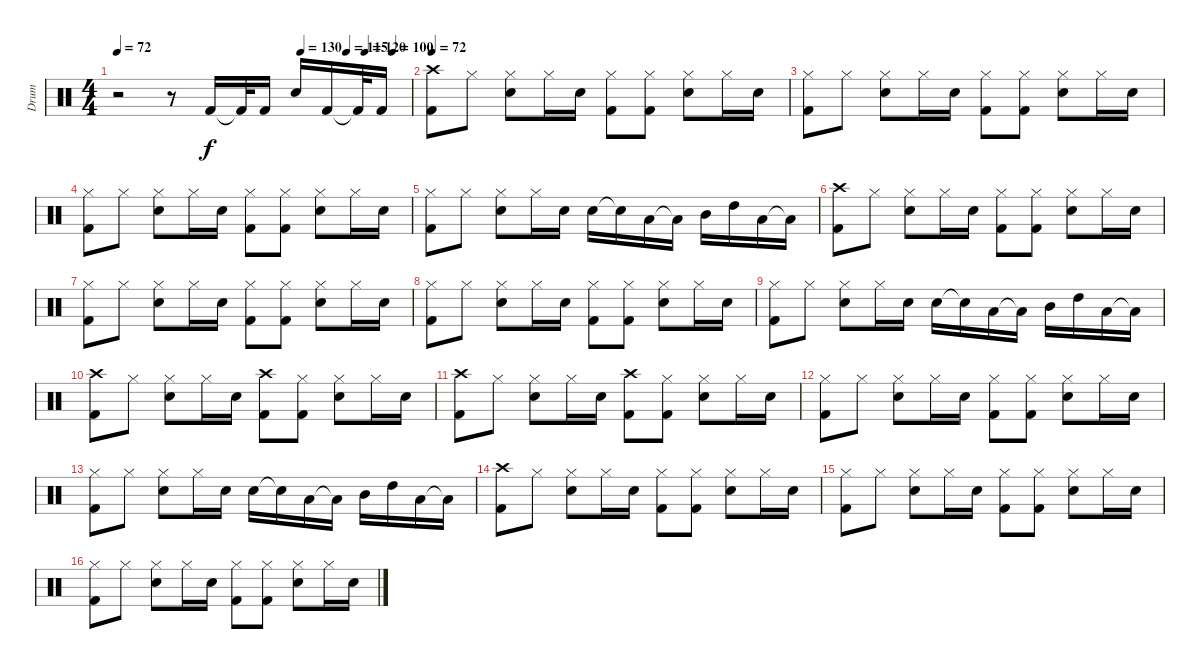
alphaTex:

\track ("Drum" "Drum") {instrument percussion}
\staff {score}
\articulation defaults
\ts (4 4)
\tempo 72
\tempo 150
\tempo (130 0.625)
\tempo (115 0.78125)
\tempo (120 0.84375)
\tempo (100 0.9375)
\tempo 72
\clef neutral
\ks c
r.2{dy f volume 16 balance 0} r.8 "Kick (hit) 2".16{volume 16} "Kick (hit) 2"{t}.32 "Kick (hit) 2".16 "Snare (hit) 2".16 "Kick (hit) 2".16 "Kick (hit) 2"{t}.32 "Kick (hit) 2".16 |
\tempo 72
("Kick (hit) 2" "Crash high (hit)").8{volume 12 balance 6} "Hi-Hat (closed)".8 ("Hi-Hat (closed)" "Electric Snare (hit)").8 "Hi-Hat (closed)".16 "Electric Snare (hit)".16 ("Hi-Hat (closed)" "Kick (hit) 2").8 ("Hi-Hat (closed)" "Kick (hit) 2").8 ("Electric Snare (hit)" "Hi-Hat (closed)").8 "Hi-Hat (closed)".16 "Electric Snare (hit)".16 |
("Hi-Hat (closed)" "Kick (hit) 2").8 "Hi-Hat (closed)".8 ("Hi-Hat (closed)" "Electric Snare (hit)").8 "Hi-Hat (closed)".16 "Electric Snare (hit)".16 ("Hi-Hat (closed)" "Kick (hit) 2").8 ("Hi-Hat (closed)" "Kick (hit) 2").8 ("Electric Snare (hit)" "Hi-Hat (closed)").8 "Hi-Hat (closed)".16 "Electric Snare (hit)".16 |
("Hi-Hat (closed)" "Kick (hit) 2").8 "Hi-Hat (closed)".8 ("Hi-Hat (closed)" "Electric Snare (hit)").8 "Hi-Hat (closed)".16 "Electric Snare (hit)".16 ("Hi-Hat (closed)" "Kick (hit) 2").8 ("Hi-Hat (closed)" "Kick (hit) 2").8 ("Electric Snare (hit)" "Hi-Hat (closed)").8 "Hi-Hat (closed)".16 "Electric Snare (hit)".16 |
("Hi-Hat (closed)" "Kick (hit) 2").8 "Hi-Hat (closed)".8 ("Hi-Hat (closed)" "Electric Snare (hit)").8 "Hi-Hat (closed)".16 "Electric Snare (hit)".16 "Electric Snare (hit)".16 "Electric Snare (hit)"{t}.16 "Low Tom (hit)".16 "Low Tom (hit)"{t}.16 "Mid Tom (hit)".16 "High Tom (hit)".16 "Low Tom (hit)".16 "Low Tom (hit)"{t}.16 |
("Crash high (hit)" "Kick (hit) 2").8 "Hi-Hat (closed)".8 ("Hi-Hat (closed)" "Electric Snare (hit)").8 "Hi-Hat (closed)".16 "Electric Snare (hit)".16 ("Hi-Hat (closed)" "Kick (hit) 2").8 ("Hi-Hat (closed)" "Kick (hit) 2").8 ("Electric Snare (hit)" "Hi-Hat (closed)").8 "Hi-Hat (closed)".16 "Electric Snare (hit)".16 |
("Hi-Hat (closed)" "Kick (hit) 2").8 "Hi-Hat (closed)".8 ("Hi-Hat (closed)" "Electric Snare (hit)").8 "Hi-Hat (closed)".16 "Electric Snare (hit)".16 ("Hi-Hat (closed)" "Kick (hit) 2").8 ("Hi-Hat (closed)" "Kick (hit) 2").8 ("Electric Snare (hit)" "Hi-Hat (closed)").8 "Hi-Hat (closed)".16 "Electric Snare (hit)".16 |
("Hi-Hat (closed)" "Kick (hit) 2").8 "Hi-Hat (closed)".8 ("Hi-Hat (closed)" "Electric Snare (hit)").8 "Hi-Hat (closed)".16 "Electric Snare (hit)".16 ("Hi-Hat (closed)" "Kick (hit) 2").8 ("Hi-Hat (closed)" "Kick (hit) 2").8 ("Electric Snare (hit)" "Hi-Hat (closed)").8 "Hi-Hat (closed)".16 "Electric Snare (hit)".16 |
("Hi-Hat (closed)" "Kick (hit) 2").8 "Hi-Hat (closed)".8 ("Hi-Hat (closed)" "Electric Snare (hit)").8 "Hi-Hat (closed)".16 "Electric Snare (hit)".16 "Electric Snare (hit)".16 "Electric Snare (hit)"{t}.16 "Low Tom (hit)".16 "Low Tom (hit)"{t}.16 "Mid Tom (hit)".16 "High Tom (hit)".16 "Low Tom (hit)".16 "Low Tom (hit)"{t}.16 |
("Crash high (hit)" "Kick (hit) 2").8 "Hi-Hat (closed)".8 ("Hi-Hat (closed)" "Electric Snare (hit)").8 "Hi-Hat (closed)".16 "Electric Snare (hit)".16 ("Crash high (hit)" "Kick (hit) 2").8 ("Hi-Hat (closed)" "Kick (hit) 2").8 ("Electric Snare (hit)" "Hi-Hat (closed)").8 "Hi-Hat (closed)".16 "Electric Snare (hit)".16 |
("Crash high (hit)" "Kick (hit) 2").8 "Hi-Hat (closed)".8 ("Hi-Hat (closed)" "Electric Snare (hit)").8 "Hi-Hat (closed)".16 "Electric Snare (hit)".16 ("Crash high (hit)" "Kick (hit) 2").8 ("Hi-Hat (closed)" "Kick (hit) 2").8 ("Electric Snare (hit)" "Hi-Hat (closed)").8 "Hi-Hat (closed)".16 "Electric Snare (hit)".16 |
("Hi-Hat (closed)" "Kick (hit) 2").8 "Hi-Hat (closed)".8 ("Hi-Hat (closed)" "Electric Snare (hit)").8 "Hi-Hat (closed)".16 "Electric Snare (hit)".16 ("Hi-Hat (closed)" "Kick (hit) 2").8 ("Hi-Hat (closed)" "Kick (hit) 2").8 ("Electric Snare (hit)" "Hi-Hat (closed)").8 "Hi-Hat (closed)".16 "Electric Snare (hit)".16 |
("Hi-Hat (closed)" "Kick (hit) 2").8 "Hi-Hat (closed)".8 ("Hi-Hat (closed)" "Electric Snare (hit)").8 "Hi-Hat (closed)".16 "Electric Snare (hit)".16 "Electric Snare (hit)".16 "Electric Snare (hit)"{t}.16 "Low Tom (hit)".16 "Low Tom (hit)"{t}.16 "Mid Tom (hit)".16 "High Tom (hit)".16 "Low Tom (hit)".16 "Low Tom (hit)"{t}.16 |
("Crash high (hit)" "Kick (hit) 2").8 "Hi-Hat (closed)".8 ("Hi-Hat (closed)" "Electric Snare (hit)").8 "Hi-Hat (closed)".16 "Electric Snare (hit)".16 ("Hi-Hat (closed)" "Kick (hit) 2").8 ("Hi-Hat (closed)" "Kick (hit) 2").8 ("Electric Snare (hit)" "Hi-Hat (closed)").8 "Hi-Hat (closed)".16 "Electric Snare (hit)".16 |
("Hi-Hat (closed)" "Kick (hit) 2").8 "Hi-Hat (closed)".8 ("Hi-Hat (closed)" "Electric Snare (hit)").8 "Hi-Hat (closed)".16 "Electric Snare (hit)".16 ("Hi-Hat (closed)" "Kick (hit) 2").8 ("Hi-Hat (closed)" "Kick (hit) 2").8 ("Electric Snare (hit)" "Hi-Hat (closed)").8 "Hi-Hat (closed)".16 "Electric Snare (hit)".16 |
("Hi-Hat (closed)" "Kick (hit) 2").8 "Hi-Hat (closed)".8 ("Hi-Hat (closed)" "Electric Snare (hit)").8 "Hi-Hat (closed)".16 "Electric Snare (hit)".16 ("Hi-Hat (closed)" "Kick (hit) 2").8 ("Hi-Hat (closed)" "Kick (hit) 2").8 ("Electric Snare (hit)" "Hi-Hat (closed)").8 "Hi-Hat (closed)".16 "Electric Snare (hit)".16
